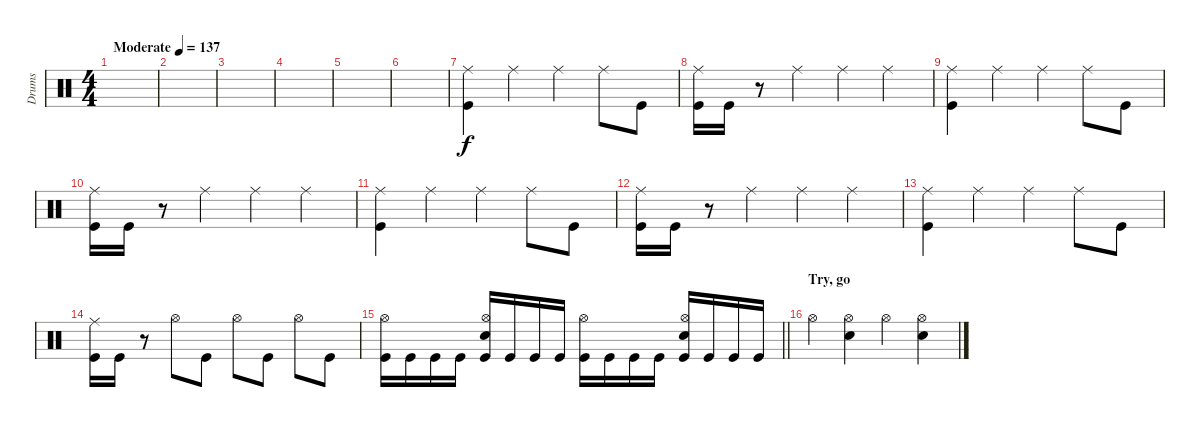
\track ("Drums" "Drums") {instrument percussion}
\staff {score}
\articulation defaults
\ts (4 4)
\tempo (137 "Moderate")
\clef neutral
\ks c
|
|
|
|
|
|
("Ride (middle)" "Kick (hit)").4 "Ride (middle)".4 "Ride (middle)".4 "Ride (middle)".8 "Kick (hit)".8 |
("Ride (middle)" "Kick (hit)").16 "Kick (hit)".16 r.8 "Ride (middle)".4 "Ride (middle)".4 "Ride (middle)".4 |
("Ride (middle)" "Kick (hit)").4 "Ride (middle)".4 "Ride (middle)".4 "Ride (middle)".8 "Kick (hit)".8 |
("Ride (middle)" "Kick (hit)").16 "Kick (hit)".16 r.8 "Ride (middle)".4 "Ride (middle)".4 "Ride (middle)".4 |
("Ride (middle)" "Kick (hit)").4 "Ride (middle)".4 "Ride (middle)".4 "Ride (middle)".8 "Kick (hit)".8 |
("Ride (middle)" "Kick (hit)").16 "Kick (hit)".16 r.8 "Ride (middle)".4 "Ride (middle)".4 "Ride (middle)".4 |
("Ride (middle)" "Kick (hit)").4 "Ride (middle)".4 "Ride (middle)".4 "Ride (middle)".8 "Kick (hit)".8 |
("Ride (middle)" "Kick (hit)").16 "Kick (hit)".16 r.8 "Hi-Hat (open)".8 "Kick (hit)".8 "Hi-Hat (open)".8 "Kick (hit)".8 "Hi-Hat (open)".8 "Kick (hit)".8 |
\barLineRight lightlight
("Hi-Hat (open)" "Kick (hit)").16 "Kick (hit)".16 "Kick (hit)".16 "Kick (hit)".16 ("Hi-Hat (open)" "Snare (hit) 2" "Kick (hit)").16 "Kick (hit)".16 "Kick (hit)".16 "Kick (hit)".16 ("Hi-Hat (open)" "Kick (hit)").16 "Kick (hit)".16 "Kick (hit)".16 "Kick (hit)".16 ("Hi-Hat (open)" "Snare (hit) 2" "Kick (hit)").16 "Kick (hit)".16 "Kick (hit)".16 "Kick (hit)".16 |
\section ("" "Try, go")
"Hi-Hat (open)".4 ("Hi-Hat (open)" "Snare (hit) 2").4 "Hi-Hat (open)".4 ("Hi-Hat (open)" "Snare (hit) 2").4
